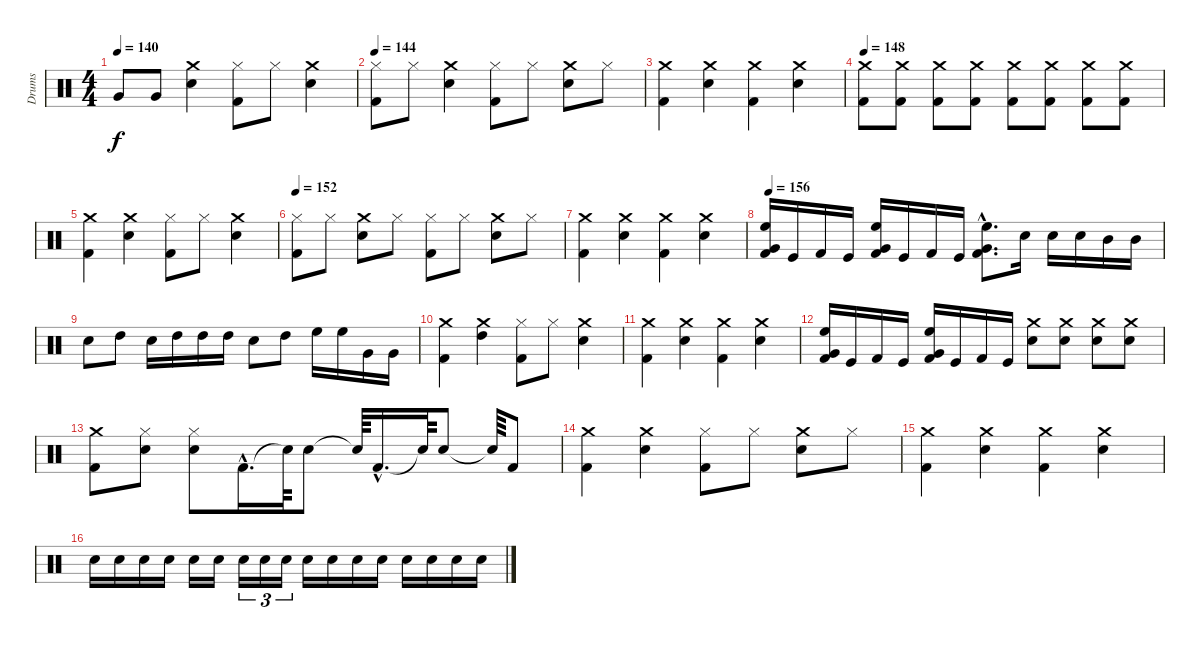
\track ("Drums" "Drums") {instrument percussion}
\staff {score}
\articulation defaults
\ts (4 4)
\tempo 140
\clef neutral
\ks c "Very Low Tom (hit)".8{dy f} "Very Low Tom (hit)".8
("Crash medium (hit)" "Snare (hit) 2").4 ("Kick (hit) 2" "Hi-Hat (closed)").8 "Hi-Hat (closed)".8 ("Crash medium (hit)" "Snare (hit) 2").4 |
\tempo 144
("Hi-Hat (closed)" "Kick (hit) 2").8 "Hi-Hat (closed)".8 ("Crash medium (hit)" "Snare (hit) 2").4 ("Hi-Hat (closed)" "Kick (hit) 2").8 "Hi-Hat (closed)".8 ("Crash medium (hit)" "Snare (hit) 2").8 "Hi-Hat (closed)".8 |
("Crash medium (hit)" "Kick (hit) 2").4 ("Crash medium (hit)" "Snare (hit) 2").4 ("Crash medium (hit)" "Kick (hit) 2").4 ("Crash medium (hit)" "Snare (hit) 2").4 |
\tempo 148
("Kick (hit) 2" "Crash medium (hit)").8 ("Kick (hit) 2" "Crash medium (hit)").8 ("Kick (hit) 2" "Crash medium (hit)").8 ("Kick (hit) 2" "Crash medium (hit)").8 ("Kick (hit) 2" "Crash medium (hit)").8 ("Kick (hit) 2" "Crash medium (hit)").8 ("Kick (hit) 2" "Crash medium (hit)").8 ("Kick (hit) 2" "Crash medium (hit)").8 |
("Kick (hit) 2" "Crash medium (hit)").4 ("Snare (hit) 2" "Crash medium (hit)").4 ("Hi-Hat (closed)" "Kick (hit) 2").8 "Hi-Hat (closed)".8 ("Snare (hit) 2" "Crash medium (hit)").4 |
\tempo 152
("Kick (hit) 2" "Hi-Hat (closed)").8 "Hi-Hat (closed)".8 ("Crash medium (hit)" "Snare (hit) 2").8 "Hi-Hat (closed)".8 ("Kick (hit) 2" "Hi-Hat (closed)").8 "Hi-Hat (closed)".8 ("Crash medium (hit)" "Snare (hit) 2").8 "Hi-Hat (closed)".8 |
("Crash medium (hit)" "Kick (hit) 2").4 ("Crash medium (hit)" "Snare (hit) 2").4 ("Crash medium (hit)" "Kick (hit) 2").4 ("Crash medium (hit)" "Snare (hit) 2").4 |
\tempo 156
("Kick (hit) 2" "High Floor Tom (hit)" "Very Low Tom (hit)").16 "Kick (hit)".16 "Kick (hit) 2".16 "Kick (hit)".16 ("Kick (hit) 2" "High Floor Tom (hit)" "Very Low Tom (hit)").16 "Kick (hit)".16 "Kick (hit) 2".16 "Kick (hit)".16 ("High Floor Tom (hit)"{hac} "Very Low Tom (hit)"{hac} "Kick (hit) 2"{hac}).8{d} "Snare (hit) 2".16 "Snare (hit) 2".16 "Snare (hit) 2".16 "Mid Tom (hit)".16 "Mid Tom (hit)".16 |
"Snare (hit) 2".8 "High Tom (hit)".8 "Snare (hit) 2".16 "High Tom (hit)".16 "High Tom (hit)".16 "High Tom (hit)".16 "Snare (hit) 2".8 "High Tom (hit)".8 "High Floor Tom (hit)".16 "High Floor Tom (hit)".16 "Very Low Tom (hit)".16 "Very Low Tom (hit)".16 |
("Crash medium (hit)" "Kick (hit) 2").4 ("Crash medium (hit)" "High Tom (hit)").4 ("Kick (hit) 2" "Hi-Hat (closed)").8 "Hi-Hat (closed)".8 ("Crash medium (hit)" "Snare (hit) 2").4 |
("Kick (hit) 2" "Crash medium (hit)").4 ("Snare (hit) 2" "Crash medium (hit)").4 ("Kick (hit) 2" "Crash medium (hit)").4 ("Snare (hit) 2" "Crash medium (hit)").4 |
("Kick (hit) 2" "High Floor Tom (hit)" "Very Low Tom (hit)").16 "Kick (hit)".16 "Kick (hit) 2".16 "Kick (hit)".16 ("Kick (hit) 2" "High Floor Tom (hit)" "Very Low Tom (hit)").16 "Kick (hit)".16 "Kick (hit) 2".16 "Kick (hit)".16 ("Snare (hit) 2" "Crash medium (hit)").8 ("Snare (hit) 2" "Crash medium (hit)").8 ("Snare (hit) 2" "Crash medium (hit)").8 ("Snare (hit) 2" "Crash medium (hit)").8 |
("Kick (hit) 2" "Crash medium (hit)").8 ("Snare (hit) 2" "Hi-Hat (closed)").8 ("Hi-Hat (closed)" "Snare (hit) 2").8 "Kick (hit) 2"{hac}.16{d} "Snare (hit)"{t}.64 "Snare (hit) 2".8 "Snare (hit)"{t}.64 "Kick (hit) 2"{hac}.16{d} "Snare (hit)"{t}.64 "Snare (hit) 2".8 "Snare (hit)"{t}.64 "Kick (hit) 2".8 |
("Kick (hit) 2" "Crash medium (hit)").4 ("Snare (hit) 2" "Crash medium (hit)").4 ("Hi-Hat (closed)" "Kick (hit) 2").8 "Hi-Hat (closed)".8 ("Crash medium (hit)" "Snare (hit) 2").8 "Hi-Hat (closed)".8 |
("Kick (hit) 2" "Crash medium (hit)").4 ("Snare (hit) 2" "Crash medium (hit)").4 ("Kick (hit) 2" "Crash medium (hit)").4 ("Snare (hit) 2" "Crash medium (hit)").4 |
"Snare (hit) 2".16 "Snare (hit) 2".16 "Snare (hit) 2".16 "Snare (hit) 2".16 "Snare (hit) 2".16 "Snare (hit) 2".16 "Snare (hit) 2".16{tu (3 2)} "Snare (hit) 2".16{tu (3 2)} "Snare (hit) 2".16{tu (3 2)} "Snare (hit) 2".16 "Snare (hit) 2".16 "Snare (hit) 2".16 "Snare (hit) 2".16 "Snare (hit) 2".16 "Snare (hit) 2".16 "Snare (hit) 2".16 "Snare (hit) 2".16
